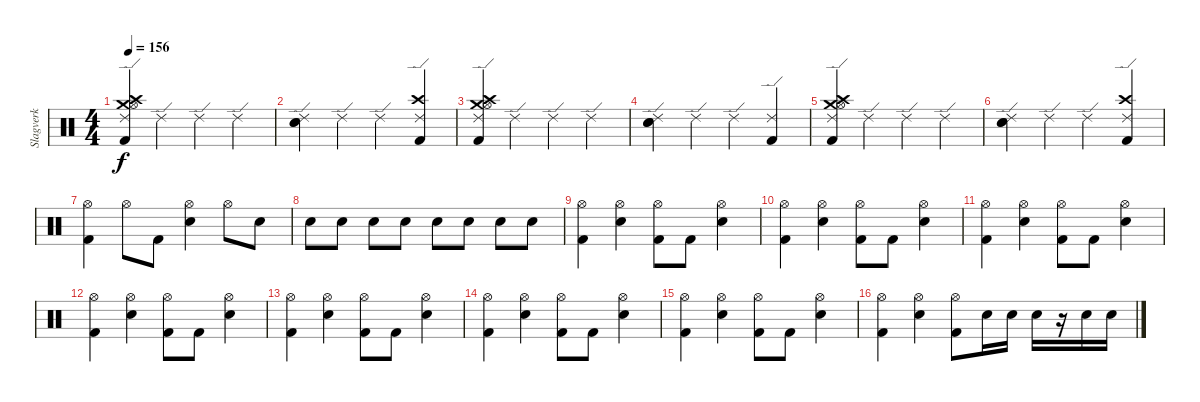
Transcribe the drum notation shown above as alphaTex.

\track ("Slagverk" "Slagverk") {instrument percussion}
\staff {score}
\articulation defaults
\ts (4 4)
\tempo 156
\clef neutral
\ks c
("Ride (edge) 2" "Crash medium (hit)" "Hi-Hat (open)" "Crash high (hit)" "Kick (hit) 2").4{dy f} "Ride (edge) 2".4 "Ride (edge) 2".4 "Ride (edge) 2".4 |
("Electric Snare (hit)" "Snare (hit) 2" "Ride (edge) 2").4 "Ride (edge) 2".4 "Ride (edge) 2".4 ("Crash high (hit)" "Kick (hit) 2" "Ride (edge) 2").4 |
("Ride (edge) 2" "Crash medium (hit)" "Hi-Hat (open)" "Crash high (hit)" "Kick (hit) 2").4 "Ride (edge) 2".4 "Ride (edge) 2".4 "Ride (edge) 2".4 |
("Electric Snare (hit)" "Snare (hit) 2" "Ride (edge) 2").4 "Ride (edge) 2".4 "Ride (edge) 2".4 ("Kick (hit) 2" "Ride (edge) 2").4 |
("Ride (edge) 2" "Crash medium (hit)" "Hi-Hat (open)" "Crash high (hit)" "Kick (hit) 2").4 "Ride (edge) 2".4 "Ride (edge) 2".4 "Ride (edge) 2".4 |
("Electric Snare (hit)" "Snare (hit) 2" "Ride (edge) 2").4 "Ride (edge) 2".4 "Ride (edge) 2".4 ("Crash high (hit)" "Kick (hit) 2" "Ride (edge) 2").4 |
("Hi-Hat (open)" "Kick (hit) 2").4 "Hi-Hat (open)".8 "Kick (hit) 2".8 ("Hi-Hat (open)" "Snare (hit) 2").4 "Hi-Hat (open)".8 "Snare (hit) 2".8 |
"Snare (hit) 2".8{volume 0} "Snare (hit) 2".8{volume 1} "Snare (hit) 2".8{volume 3} "Snare (hit) 2".8{volume 4} "Snare (hit) 2".8{volume 6} "Snare (hit) 2".8{volume 7} "Snare (hit) 2".8{volume 9} "Snare (hit) 2".8{volume 10} |
("Hi-Hat (open)" "Kick (hit) 2").4{volume 12} ("Hi-Hat (open)" "Snare (hit) 2").4 ("Hi-Hat (open)" "Kick (hit) 2").8 "Kick (hit) 2".8 ("Hi-Hat (open)" "Snare (hit) 2").4 |
("Hi-Hat (open)" "Kick (hit) 2").4 ("Hi-Hat (open)" "Snare (hit) 2").4 ("Hi-Hat (open)" "Kick (hit) 2").8 "Kick (hit) 2".8 ("Hi-Hat (open)" "Snare (hit) 2").4 |
("Hi-Hat (open)" "Kick (hit) 2").4 ("Hi-Hat (open)" "Snare (hit) 2").4 ("Hi-Hat (open)" "Kick (hit) 2").8 "Kick (hit) 2".8 ("Hi-Hat (open)" "Snare (hit) 2").4 |
("Hi-Hat (open)" "Kick (hit) 2").4 ("Hi-Hat (open)" "Snare (hit) 2").4 ("Hi-Hat (open)" "Kick (hit) 2").8 "Kick (hit) 2".8 ("Hi-Hat (open)" "Snare (hit) 2").4 |
("Hi-Hat (open)" "Kick (hit) 2").4 ("Hi-Hat (open)" "Snare (hit) 2").4 ("Hi-Hat (open)" "Kick (hit) 2").8 "Kick (hit) 2".8 ("Hi-Hat (open)" "Snare (hit) 2").4 |
("Hi-Hat (open)" "Kick (hit) 2").4 ("Hi-Hat (open)" "Snare (hit) 2").4 ("Hi-Hat (open)" "Kick (hit) 2").8 "Kick (hit) 2".8 ("Hi-Hat (open)" "Snare (hit) 2").4 |
("Hi-Hat (open)" "Kick (hit) 2").4 ("Hi-Hat (open)" "Snare (hit) 2").4 ("Hi-Hat (open)" "Kick (hit) 2").8 "Kick (hit) 2".8 ("Hi-Hat (open)" "Snare (hit) 2").4 |
("Hi-Hat (open)" "Kick (hit) 2").4 ("Hi-Hat (open)" "Snare (hit) 2").4 ("Hi-Hat (open)" "Kick (hit) 2").8 "Snare (hit) 2".16 "Snare (hit) 2".16 "Snare (hit) 2".16 r.16 "Snare (hit) 2".16 "Snare (hit) 2".16
